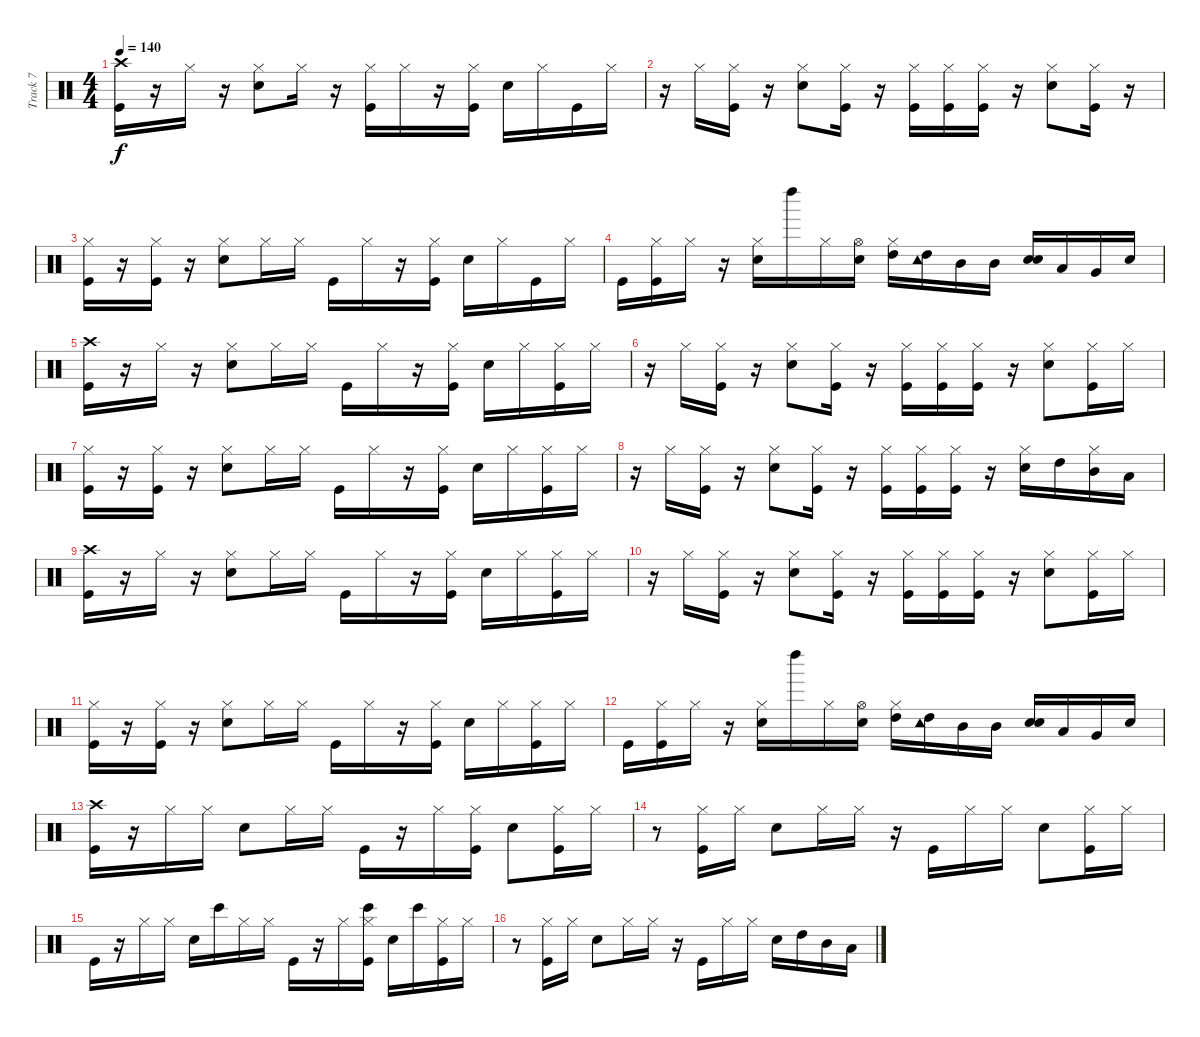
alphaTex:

\track ("Track 7" "Track 7") {instrument percussion}
\staff {score}
\articulation defaults
\ts (4 4)
\tempo 140
\clef neutral
\ks c
("Crash high (hit)" "Kick (hit)").16{dy f} r.16 "Hi-Hat (closed)".16 r.16 ("Hi-Hat (closed)" "Electric Snare (hit)").8 "Hi-Hat (closed)".16 r.16 ("Hi-Hat (closed)" "Kick (hit)").16 "Hi-Hat (closed)".16 r.16 ("Kick (hit)" "Hi-Hat (closed)").16 "Electric Snare (hit)".16 "Hi-Hat (closed)".16 "Kick (hit)".16 "Hi-Hat (closed)".16 |
r.16 "Hi-Hat (closed)".16 ("Hi-Hat (closed)" "Kick (hit)").16 r.16 ("Hi-Hat (closed)" "Electric Snare (hit)").8 ("Hi-Hat (closed)" "Kick (hit)").16 r.16 ("Hi-Hat (closed)" "Kick (hit)").16 ("Kick (hit)" "Hi-Hat (closed)").16 ("Hi-Hat (closed)" "Kick (hit)").16 r.16 ("Hi-Hat (closed)" "Electric Snare (hit)").8 ("Hi-Hat (closed)" "Kick (hit)").16 r.16 |
("Hi-Hat (closed)" "Kick (hit)").16 r.16 ("Hi-Hat (closed)" "Kick (hit)").16 r.16 ("Hi-Hat (closed)" "Electric Snare (hit)").8 "Hi-Hat (closed)".16 "Hi-Hat (closed)".16 "Kick (hit)".16 "Hi-Hat (closed)".16 r.16 ("Kick (hit)" "Hi-Hat (closed)").16 "Electric Snare (hit)".16 "Hi-Hat (closed)".16 "Kick (hit)".16 "Hi-Hat (closed)".16 |
"Kick (hit)".16 ("Kick (hit)" "Hi-Hat (closed)").16 "Hi-Hat (closed)".16 r.16 ("Hi-Hat (closed)" "Electric Snare (hit)").16 "Left Maraca (hit)".16 "Hi-Hat (closed)".16 ("Hi-Hat (open)" "Electric Snare (hit)").16 ("Hi-Hat (closed)" "High Tom (hit)").16 ("Tambourine (hit)" "High Tom (hit)").16 "Mid Tom (hit)".16 "Mid Tom (hit)".16 ("Electric Snare (hit)" "Electric Snare (hit)").16 "Low Tom (hit)".16 "Very Low Tom (hit)".16 "Electric Snare (hit)".16 |
("Crash high (hit)" "Kick (hit)").16 r.16 "Hi-Hat (closed)".16 r.16 ("Hi-Hat (closed)" "Electric Snare (hit)").8 "Hi-Hat (closed)".16 "Hi-Hat (closed)".16 "Kick (hit)".16 "Hi-Hat (closed)".16 r.16 ("Kick (hit)" "Hi-Hat (closed)").16 "Electric Snare (hit)".16 "Hi-Hat (closed)".16 ("Hi-Hat (closed)" "Kick (hit)").16 "Hi-Hat (closed)".16 |
r.16 "Hi-Hat (closed)".16 ("Hi-Hat (closed)" "Kick (hit)").16 r.16 ("Hi-Hat (closed)" "Electric Snare (hit)").8 ("Hi-Hat (closed)" "Kick (hit)").16 r.16 ("Hi-Hat (closed)" "Kick (hit)").16 ("Kick (hit)" "Hi-Hat (closed)").16 ("Hi-Hat (closed)" "Kick (hit)").16 r.16 ("Hi-Hat (closed)" "Electric Snare (hit)").8 ("Hi-Hat (closed)" "Kick (hit)").16 "Hi-Hat (closed)".16 |
("Hi-Hat (closed)" "Kick (hit)").16 r.16 ("Hi-Hat (closed)" "Kick (hit)").16 r.16 ("Hi-Hat (closed)" "Electric Snare (hit)").8 "Hi-Hat (closed)".16 "Hi-Hat (closed)".16 "Kick (hit)".16 "Hi-Hat (closed)".16 r.16 ("Kick (hit)" "Hi-Hat (closed)").16 "Electric Snare (hit)".16 "Hi-Hat (closed)".16 ("Hi-Hat (closed)" "Kick (hit)").16 "Hi-Hat (closed)".16 |
r.16 "Hi-Hat (closed)".16 ("Hi-Hat (closed)" "Kick (hit)").16 r.16 ("Hi-Hat (closed)" "Electric Snare (hit)").8 ("Hi-Hat (closed)" "Kick (hit)").16 r.16 ("Hi-Hat (closed)" "Kick (hit)").16 ("Kick (hit)" "Hi-Hat (closed)").16 ("Hi-Hat (closed)" "Kick (hit)").16 r.16 ("Hi-Hat (closed)" "Electric Snare (hit)").16 "High Tom (hit)".16 ("Hi-Hat (closed)" "Mid Tom (hit)").16 "Low Tom (hit)".16 |
("Crash high (hit)" "Kick (hit)").16 r.16 "Hi-Hat (closed)".16 r.16 ("Hi-Hat (closed)" "Electric Snare (hit)").8 "Hi-Hat (closed)".16 "Hi-Hat (closed)".16 "Kick (hit)".16 "Hi-Hat (closed)".16 r.16 ("Kick (hit)" "Hi-Hat (closed)").16 "Electric Snare (hit)".16 "Hi-Hat (closed)".16 ("Hi-Hat (closed)" "Kick (hit)").16 "Hi-Hat (closed)".16 |
r.16 "Hi-Hat (closed)".16 ("Hi-Hat (closed)" "Kick (hit)").16 r.16 ("Hi-Hat (closed)" "Electric Snare (hit)").8 ("Hi-Hat (closed)" "Kick (hit)").16 r.16 ("Hi-Hat (closed)" "Kick (hit)").16 ("Kick (hit)" "Hi-Hat (closed)").16 ("Hi-Hat (closed)" "Kick (hit)").16 r.16 ("Hi-Hat (closed)" "Electric Snare (hit)").8 ("Hi-Hat (closed)" "Kick (hit)").16 "Hi-Hat (closed)".16 |
("Hi-Hat (closed)" "Kick (hit)").16 r.16 ("Hi-Hat (closed)" "Kick (hit)").16 r.16 ("Hi-Hat (closed)" "Electric Snare (hit)").8 "Hi-Hat (closed)".16 "Hi-Hat (closed)".16 "Kick (hit)".16 "Hi-Hat (closed)".16 r.16 ("Kick (hit)" "Hi-Hat (closed)").16 "Electric Snare (hit)".16 "Hi-Hat (closed)".16 ("Hi-Hat (closed)" "Kick (hit)").16 "Hi-Hat (closed)".16 |
"Kick (hit)".16 ("Kick (hit)" "Hi-Hat (closed)").16 "Hi-Hat (closed)".16 r.16 ("Hi-Hat (closed)" "Electric Snare (hit)").16 "Left Maraca (hit)".16 "Hi-Hat (closed)".16 ("Hi-Hat (open)" "Electric Snare (hit)").16 ("Hi-Hat (closed)" "High Tom (hit)").16 ("Tambourine (hit)" "High Tom (hit)").16 "Mid Tom (hit)".16 "Mid Tom (hit)".16 ("Electric Snare (hit)" "Electric Snare (hit)").16 "Low Tom (hit)".16 "Very Low Tom (hit)".16 "Electric Snare (hit)".16 |
("Crash high (hit)" "Kick (hit)").16 r.16 "Hi-Hat (closed)".16 "Hi-Hat (closed)".16 "Electric Snare (hit)".8 "Hi-Hat (closed)".16 "Hi-Hat (closed)".16 "Kick (hit)".16 r.16 "Hi-Hat (closed)".16 ("Kick (hit)" "Hi-Hat (closed)").16 "Electric Snare (hit)".8 ("Hi-Hat (closed)" "Kick (hit)").16 "Hi-Hat (closed)".16 |
r.8 ("Hi-Hat (closed)" "Kick (hit)").16 "Hi-Hat (closed)".16 "Electric Snare (hit)".8 "Hi-Hat (closed)".16 "Hi-Hat (closed)".16 r.16 "Kick (hit)".16 "Hi-Hat (closed)".16 "Hi-Hat (closed)".16 "Electric Snare (hit)".8 ("Hi-Hat (closed)" "Kick (hit)").16 "Hi-Hat (closed)".16 |
"Kick (hit)".16 r.16 "Hi-Hat (closed)".16 "Hi-Hat (closed)".16 "Electric Snare (hit)".16 "Bongo High (hit)".16 "Hi-Hat (closed)".16 "Hi-Hat (closed)".16 "Kick (hit)".16 r.16 "Hi-Hat (closed)".16 ("Kick (hit)" "Hi-Hat (closed)" "Bongo High (hit)").16 "Electric Snare (hit)".16 "Bongo High (hit)".16 ("Hi-Hat (closed)" "Kick (hit)").16 "Hi-Hat (closed)".16 |
r.8 ("Hi-Hat (closed)" "Kick (hit)").16 "Hi-Hat (closed)".16 "Electric Snare (hit)".8 "Hi-Hat (closed)".16 "Hi-Hat (closed)".16 r.16 "Kick (hit)".16 "Hi-Hat (closed)".16 "Hi-Hat (closed)".16 "Electric Snare (hit)".16 "High Tom (hit)".16 "Mid Tom (hit)".16 "Low Tom (hit)".16
